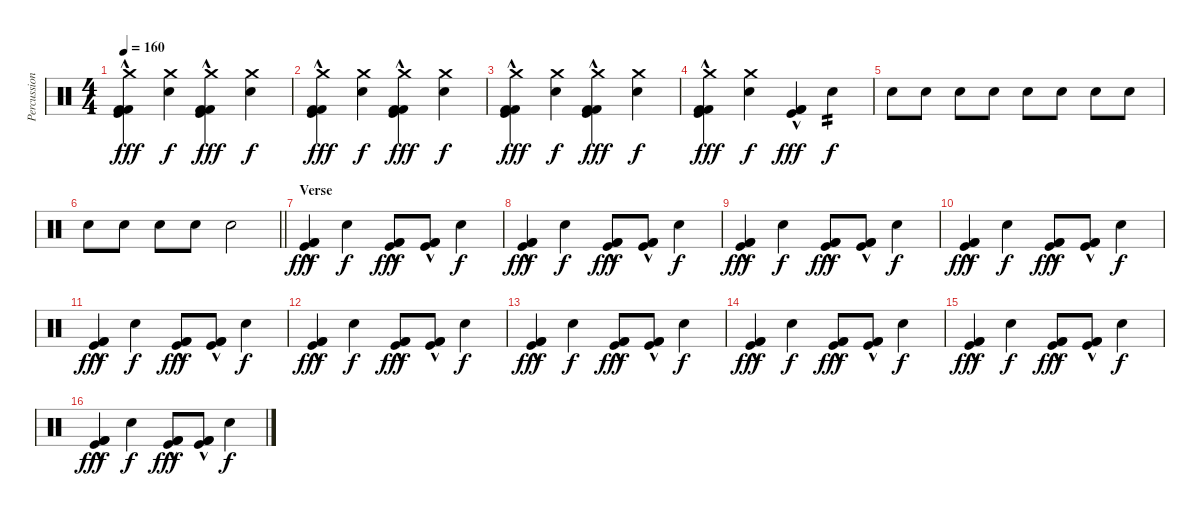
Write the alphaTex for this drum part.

\track ("Percussion" "Percussion") {instrument percussion}
\staff {score}
\articulation defaults
\ts (4 4)
\tempo 160
\clef neutral
\ks c
("Crash medium (hit)" "Kick (hit) 2"{hac} "Kick (hit)"{hac} "Kick (hit) 2").4{dy fff} ("Crash medium (hit)" "Snare (hit) 2").4{dy f} ("Crash medium (hit)" "Kick (hit) 2"{hac} "Kick (hit)"{hac} "Kick (hit) 2").4{dy fff} ("Crash medium (hit)" "Snare (hit) 2").4{dy f} |
("Crash medium (hit)" "Kick (hit) 2"{hac} "Kick (hit)"{hac} "Kick (hit) 2").4{dy fff} ("Crash medium (hit)" "Snare (hit) 2").4{dy f} ("Crash medium (hit)" "Kick (hit) 2"{hac} "Kick (hit)"{hac} "Kick (hit) 2").4{dy fff} ("Crash medium (hit)" "Snare (hit) 2").4{dy f} |
("Crash medium (hit)" "Kick (hit) 2"{hac} "Kick (hit)"{hac} "Kick (hit) 2").4{dy fff} ("Crash medium (hit)" "Snare (hit) 2").4{dy f} ("Crash medium (hit)" "Kick (hit) 2"{hac} "Kick (hit)"{hac} "Kick (hit) 2").4{dy fff} ("Crash medium (hit)" "Snare (hit) 2").4{dy f} |
("Crash medium (hit)" "Kick (hit) 2"{hac} "Kick (hit)"{hac} "Kick (hit) 2").4{dy fff} ("Crash medium (hit)" "Snare (hit) 2").4{dy f} ("Kick (hit) 2"{hac} "Kick (hit)"{hac} "Kick (hit) 2").4{dy fff} "Snare (hit) 2".4{tp 2 dy f} |
"Snare (hit) 2".8{volume 2} "Snare (hit) 2".8{volume 13} "Snare (hit) 2".8 "Snare (hit) 2".8 "Snare (hit) 2".8 "Snare (hit) 2".8 "Snare (hit) 2".8 "Snare (hit) 2".8 |
\barLineRight lightlight "Snare (hit) 2".8 "Snare (hit) 2".8 "Snare (hit) 2".8 "Snare (hit) 2".8 "Snare (hit) 2".2
|
\section ("" "Verse")
("Kick (hit) 2"{hac} "Kick (hit)"{hac} "Kick (hit) 2").4{dy fff} "Snare (hit) 2".4{dy f} ("Kick (hit) 2"{hac} "Kick (hit)"{hac} "Kick (hit) 2").8{dy fff} ("Kick (hit) 2"{hac} "Kick (hit)"{hac} "Kick (hit) 2"{hac}).8 "Snare (hit) 2".4{dy f} |
("Kick (hit) 2"{hac} "Kick (hit)"{hac} "Kick (hit) 2").4{dy fff} "Snare (hit) 2".4{dy f} ("Kick (hit) 2"{hac} "Kick (hit)"{hac} "Kick (hit) 2").8{dy fff} ("Kick (hit) 2"{hac} "Kick (hit)"{hac} "Kick (hit) 2"{hac}).8 "Snare (hit) 2".4{dy f} |
("Kick (hit) 2"{hac} "Kick (hit)"{hac} "Kick (hit) 2").4{dy fff} "Snare (hit) 2".4{dy f} ("Kick (hit) 2"{hac} "Kick (hit)"{hac} "Kick (hit) 2").8{dy fff} ("Kick (hit) 2"{hac} "Kick (hit)"{hac} "Kick (hit) 2"{hac}).8 "Snare (hit) 2".4{dy f} |
("Kick (hit) 2"{hac} "Kick (hit)"{hac} "Kick (hit) 2").4{dy fff} "Snare (hit) 2".4{dy f} ("Kick (hit) 2"{hac} "Kick (hit)"{hac} "Kick (hit) 2").8{dy fff} ("Kick (hit) 2"{hac} "Kick (hit)"{hac} "Kick (hit) 2"{hac}).8 "Snare (hit) 2".4{dy f} |
("Kick (hit) 2"{hac} "Kick (hit)"{hac} "Kick (hit) 2").4{dy fff} "Snare (hit) 2".4{dy f} ("Kick (hit) 2"{hac} "Kick (hit)"{hac} "Kick (hit) 2").8{dy fff} ("Kick (hit) 2"{hac} "Kick (hit)"{hac} "Kick (hit) 2"{hac}).8 "Snare (hit) 2".4{dy f} |
("Kick (hit) 2"{hac} "Kick (hit)"{hac} "Kick (hit) 2").4{dy fff} "Snare (hit) 2".4{dy f} ("Kick (hit) 2"{hac} "Kick (hit)"{hac} "Kick (hit) 2").8{dy fff} ("Kick (hit) 2"{hac} "Kick (hit)"{hac} "Kick (hit) 2"{hac}).8 "Snare (hit) 2".4{dy f} |
("Kick (hit) 2"{hac} "Kick (hit)"{hac} "Kick (hit) 2").4{dy fff} "Snare (hit) 2".4{dy f} ("Kick (hit) 2"{hac} "Kick (hit)"{hac} "Kick (hit) 2").8{dy fff} ("Kick (hit) 2"{hac} "Kick (hit)"{hac} "Kick (hit) 2"{hac}).8 "Snare (hit) 2".4{dy f} |
("Kick (hit) 2"{hac} "Kick (hit)"{hac} "Kick (hit) 2").4{dy fff} "Snare (hit) 2".4{dy f} ("Kick (hit) 2"{hac} "Kick (hit)"{hac} "Kick (hit) 2").8{dy fff} ("Kick (hit) 2"{hac} "Kick (hit)"{hac} "Kick (hit) 2"{hac}).8 "Snare (hit) 2".4{dy f} |
("Kick (hit) 2"{hac} "Kick (hit)"{hac} "Kick (hit) 2").4{dy fff} "Snare (hit) 2".4{dy f} ("Kick (hit) 2"{hac} "Kick (hit)"{hac} "Kick (hit) 2").8{dy fff} ("Kick (hit) 2"{hac} "Kick (hit)"{hac} "Kick (hit) 2"{hac}).8 "Snare (hit) 2".4{dy f} |
("Kick (hit) 2"{hac} "Kick (hit)"{hac} "Kick (hit) 2").4{dy fff} "Snare (hit) 2".4{dy f} ("Kick (hit) 2"{hac} "Kick (hit)"{hac} "Kick (hit) 2").8{dy fff} ("Kick (hit) 2"{hac} "Kick (hit)"{hac} "Kick (hit) 2"{hac}).8 "Snare (hit) 2".4{dy f}
